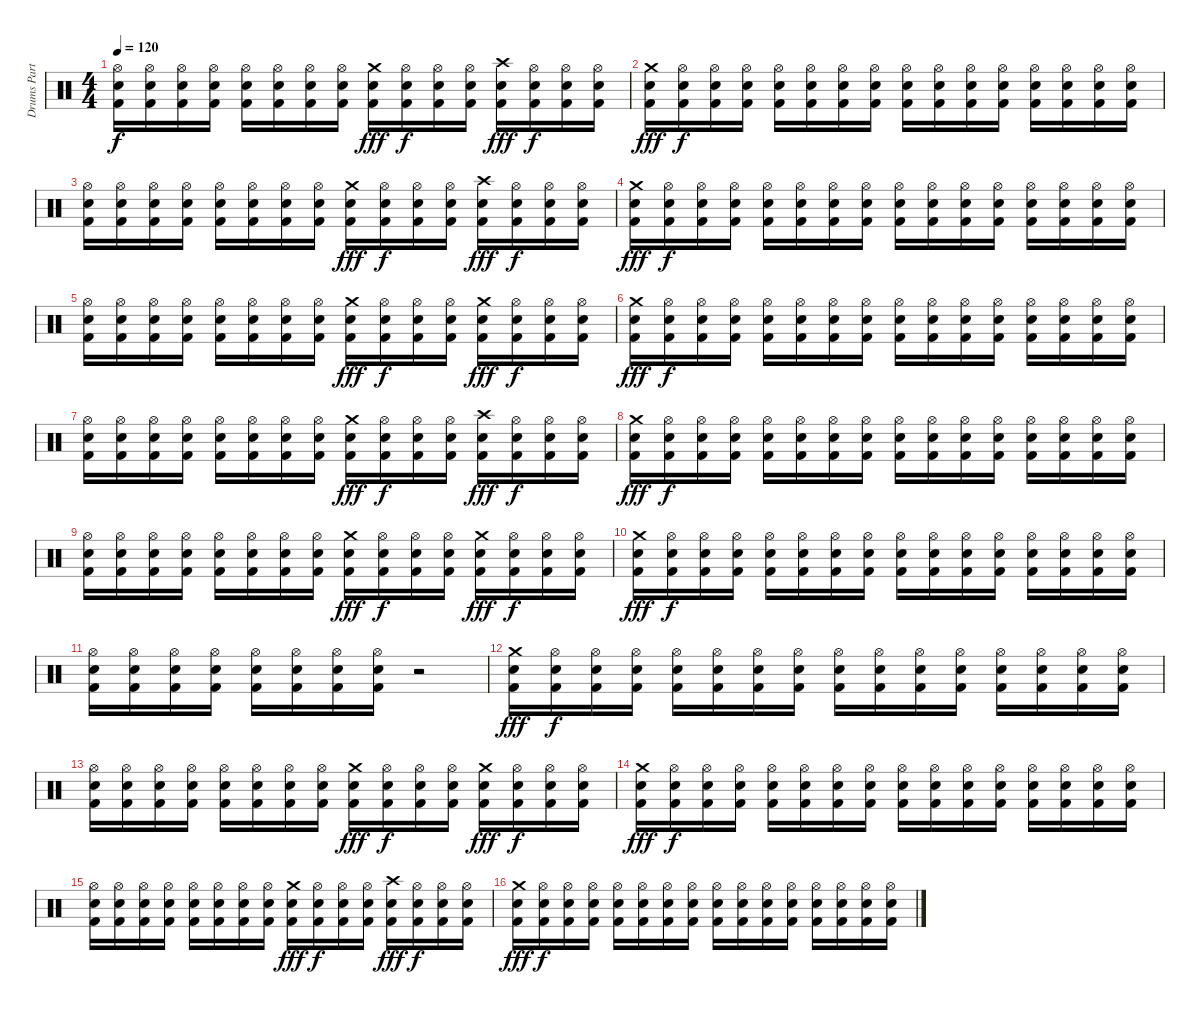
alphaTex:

\track ("Drums Part" "Drums Part") {instrument percussion}
\staff {score}
\articulation defaults
\ts (4 4)
\tempo 120
\clef neutral
\ks c
("Hi-Hat (open)" "Electric Snare (hit)" "Kick (hit) 2").16{dy f} ("Hi-Hat (open)" "Electric Snare (hit)" "Kick (hit) 2").16 ("Hi-Hat (open)" "Electric Snare (hit)" "Kick (hit) 2").16 ("Hi-Hat (open)" "Electric Snare (hit)" "Kick (hit) 2").16 ("Hi-Hat (open)" "Electric Snare (hit)" "Kick (hit) 2").16 ("Hi-Hat (open)" "Electric Snare (hit)" "Kick (hit) 2").16 ("Hi-Hat (open)" "Electric Snare (hit)" "Kick (hit) 2").16 ("Hi-Hat (open)" "Electric Snare (hit)" "Kick (hit) 2").16 ("Crash medium (hit)" "Electric Snare (hit)" "Kick (hit) 2").16{dy fff} ("Hi-Hat (open)" "Electric Snare (hit)" "Kick (hit) 2").16{dy f} ("Hi-Hat (open)" "Electric Snare (hit)" "Kick (hit) 2").16 ("Hi-Hat (open)" "Electric Snare (hit)" "Kick (hit) 2").16 ("Crash high (hit)" "Electric Snare (hit)" "Kick (hit) 2").16{dy fff} ("Hi-Hat (open)" "Electric Snare (hit)" "Kick (hit) 2").16{dy f} ("Hi-Hat (open)" "Electric Snare (hit)" "Kick (hit) 2").16 ("Hi-Hat (open)" "Electric Snare (hit)" "Kick (hit) 2").16 |
("Crash medium (hit)" "Electric Snare (hit)" "Kick (hit) 2").16{dy fff} ("Hi-Hat (open)" "Electric Snare (hit)" "Kick (hit) 2").16{dy f} ("Hi-Hat (open)" "Electric Snare (hit)" "Kick (hit) 2").16 ("Hi-Hat (open)" "Electric Snare (hit)" "Kick (hit) 2").16 ("Hi-Hat (open)" "Electric Snare (hit)" "Kick (hit) 2").16 ("Hi-Hat (open)" "Electric Snare (hit)" "Kick (hit) 2").16 ("Hi-Hat (open)" "Electric Snare (hit)" "Kick (hit) 2").16 ("Hi-Hat (open)" "Electric Snare (hit)" "Kick (hit) 2").16 ("Hi-Hat (open)" "Electric Snare (hit)" "Kick (hit) 2").16 ("Hi-Hat (open)" "Electric Snare (hit)" "Kick (hit) 2").16 ("Hi-Hat (open)" "Electric Snare (hit)" "Kick (hit) 2").16 ("Hi-Hat (open)" "Electric Snare (hit)" "Kick (hit) 2").16 ("Hi-Hat (open)" "Electric Snare (hit)" "Kick (hit) 2").16 ("Hi-Hat (open)" "Electric Snare (hit)" "Kick (hit) 2").16 ("Hi-Hat (open)" "Electric Snare (hit)" "Kick (hit) 2").16 ("Hi-Hat (open)" "Electric Snare (hit)" "Kick (hit) 2").16 |
("Hi-Hat (open)" "Electric Snare (hit)" "Kick (hit) 2").16 ("Hi-Hat (open)" "Electric Snare (hit)" "Kick (hit) 2").16 ("Hi-Hat (open)" "Electric Snare (hit)" "Kick (hit) 2").16 ("Hi-Hat (open)" "Electric Snare (hit)" "Kick (hit) 2").16 ("Hi-Hat (open)" "Electric Snare (hit)" "Kick (hit) 2").16 ("Hi-Hat (open)" "Electric Snare (hit)" "Kick (hit) 2").16 ("Hi-Hat (open)" "Electric Snare (hit)" "Kick (hit) 2").16 ("Hi-Hat (open)" "Electric Snare (hit)" "Kick (hit) 2").16 ("Crash medium (hit)" "Electric Snare (hit)" "Kick (hit) 2").16{dy fff} ("Hi-Hat (open)" "Electric Snare (hit)" "Kick (hit) 2").16{dy f} ("Hi-Hat (open)" "Electric Snare (hit)" "Kick (hit) 2").16 ("Hi-Hat (open)" "Electric Snare (hit)" "Kick (hit) 2").16 ("Crash high (hit)" "Electric Snare (hit)" "Kick (hit) 2").16{dy fff} ("Hi-Hat (open)" "Electric Snare (hit)" "Kick (hit) 2").16{dy f} ("Hi-Hat (open)" "Electric Snare (hit)" "Kick (hit) 2").16 ("Hi-Hat (open)" "Electric Snare (hit)" "Kick (hit) 2").16 |
("Crash medium (hit)" "Electric Snare (hit)" "Kick (hit) 2").16{dy fff} ("Hi-Hat (open)" "Electric Snare (hit)" "Kick (hit) 2").16{dy f} ("Hi-Hat (open)" "Electric Snare (hit)" "Kick (hit) 2").16 ("Hi-Hat (open)" "Electric Snare (hit)" "Kick (hit) 2").16 ("Hi-Hat (open)" "Electric Snare (hit)" "Kick (hit) 2").16 ("Hi-Hat (open)" "Electric Snare (hit)" "Kick (hit) 2").16 ("Hi-Hat (open)" "Electric Snare (hit)" "Kick (hit) 2").16 ("Hi-Hat (open)" "Electric Snare (hit)" "Kick (hit) 2").16 ("Hi-Hat (open)" "Electric Snare (hit)" "Kick (hit) 2").16 ("Hi-Hat (open)" "Electric Snare (hit)" "Kick (hit) 2").16 ("Hi-Hat (open)" "Electric Snare (hit)" "Kick (hit) 2").16 ("Hi-Hat (open)" "Electric Snare (hit)" "Kick (hit) 2").16 ("Hi-Hat (open)" "Electric Snare (hit)" "Kick (hit) 2").16 ("Hi-Hat (open)" "Electric Snare (hit)" "Kick (hit) 2").16 ("Hi-Hat (open)" "Electric Snare (hit)" "Kick (hit) 2").16 ("Hi-Hat (open)" "Electric Snare (hit)" "Kick (hit) 2").16 |
("Hi-Hat (open)" "Electric Snare (hit)" "Kick (hit) 2").16 ("Hi-Hat (open)" "Electric Snare (hit)" "Kick (hit) 2").16 ("Hi-Hat (open)" "Electric Snare (hit)" "Kick (hit) 2").16 ("Hi-Hat (open)" "Electric Snare (hit)" "Kick (hit) 2").16 ("Hi-Hat (open)" "Electric Snare (hit)" "Kick (hit) 2").16 ("Hi-Hat (open)" "Electric Snare (hit)" "Kick (hit) 2").16 ("Hi-Hat (open)" "Electric Snare (hit)" "Kick (hit) 2").16 ("Hi-Hat (open)" "Electric Snare (hit)" "Kick (hit) 2").16 ("Crash medium (hit)" "Electric Snare (hit)" "Kick (hit) 2").16{dy fff} ("Hi-Hat (open)" "Electric Snare (hit)" "Kick (hit) 2").16{dy f} ("Hi-Hat (open)" "Electric Snare (hit)" "Kick (hit) 2").16 ("Hi-Hat (open)" "Electric Snare (hit)" "Kick (hit) 2").16 ("Crash medium (hit)" "Electric Snare (hit)" "Kick (hit) 2").16{dy fff} ("Hi-Hat (open)" "Electric Snare (hit)" "Kick (hit) 2").16{dy f} ("Hi-Hat (open)" "Electric Snare (hit)" "Kick (hit) 2").16 ("Hi-Hat (open)" "Electric Snare (hit)" "Kick (hit) 2").16 |
("Crash medium (hit)" "Electric Snare (hit)" "Kick (hit) 2").16{dy fff} ("Hi-Hat (open)" "Electric Snare (hit)" "Kick (hit) 2").16{dy f} ("Hi-Hat (open)" "Electric Snare (hit)" "Kick (hit) 2").16 ("Hi-Hat (open)" "Electric Snare (hit)" "Kick (hit) 2").16 ("Hi-Hat (open)" "Electric Snare (hit)" "Kick (hit) 2").16 ("Hi-Hat (open)" "Electric Snare (hit)" "Kick (hit) 2").16 ("Hi-Hat (open)" "Electric Snare (hit)" "Kick (hit) 2").16 ("Hi-Hat (open)" "Electric Snare (hit)" "Kick (hit) 2").16 ("Hi-Hat (open)" "Electric Snare (hit)" "Kick (hit) 2").16 ("Hi-Hat (open)" "Electric Snare (hit)" "Kick (hit) 2").16 ("Hi-Hat (open)" "Electric Snare (hit)" "Kick (hit) 2").16 ("Hi-Hat (open)" "Electric Snare (hit)" "Kick (hit) 2").16 ("Hi-Hat (open)" "Electric Snare (hit)" "Kick (hit) 2").16 ("Hi-Hat (open)" "Electric Snare (hit)" "Kick (hit) 2").16 ("Hi-Hat (open)" "Electric Snare (hit)" "Kick (hit) 2").16 ("Hi-Hat (open)" "Electric Snare (hit)" "Kick (hit) 2").16 |
("Hi-Hat (open)" "Electric Snare (hit)" "Kick (hit) 2").16 ("Hi-Hat (open)" "Electric Snare (hit)" "Kick (hit) 2").16 ("Hi-Hat (open)" "Electric Snare (hit)" "Kick (hit) 2").16 ("Hi-Hat (open)" "Electric Snare (hit)" "Kick (hit) 2").16 ("Hi-Hat (open)" "Electric Snare (hit)" "Kick (hit) 2").16 ("Hi-Hat (open)" "Electric Snare (hit)" "Kick (hit) 2").16 ("Hi-Hat (open)" "Electric Snare (hit)" "Kick (hit) 2").16 ("Hi-Hat (open)" "Electric Snare (hit)" "Kick (hit) 2").16 ("Crash medium (hit)" "Electric Snare (hit)" "Kick (hit) 2").16{dy fff} ("Hi-Hat (open)" "Electric Snare (hit)" "Kick (hit) 2").16{dy f} ("Hi-Hat (open)" "Electric Snare (hit)" "Kick (hit) 2").16 ("Hi-Hat (open)" "Electric Snare (hit)" "Kick (hit) 2").16 ("Crash high (hit)" "Electric Snare (hit)" "Kick (hit) 2").16{dy fff} ("Hi-Hat (open)" "Electric Snare (hit)" "Kick (hit) 2").16{dy f} ("Hi-Hat (open)" "Electric Snare (hit)" "Kick (hit) 2").16 ("Hi-Hat (open)" "Electric Snare (hit)" "Kick (hit) 2").16 |
("Crash medium (hit)" "Electric Snare (hit)" "Kick (hit) 2").16{dy fff} ("Hi-Hat (open)" "Electric Snare (hit)" "Kick (hit) 2").16{dy f} ("Hi-Hat (open)" "Electric Snare (hit)" "Kick (hit) 2").16 ("Hi-Hat (open)" "Electric Snare (hit)" "Kick (hit) 2").16 ("Hi-Hat (open)" "Electric Snare (hit)" "Kick (hit) 2").16 ("Hi-Hat (open)" "Electric Snare (hit)" "Kick (hit) 2").16 ("Hi-Hat (open)" "Electric Snare (hit)" "Kick (hit) 2").16 ("Hi-Hat (open)" "Electric Snare (hit)" "Kick (hit) 2").16 ("Hi-Hat (open)" "Electric Snare (hit)" "Kick (hit) 2").16 ("Hi-Hat (open)" "Electric Snare (hit)" "Kick (hit) 2").16 ("Hi-Hat (open)" "Electric Snare (hit)" "Kick (hit) 2").16 ("Hi-Hat (open)" "Electric Snare (hit)" "Kick (hit) 2").16 ("Hi-Hat (open)" "Electric Snare (hit)" "Kick (hit) 2").16 ("Hi-Hat (open)" "Electric Snare (hit)" "Kick (hit) 2").16 ("Hi-Hat (open)" "Electric Snare (hit)" "Kick (hit) 2").16 ("Hi-Hat (open)" "Electric Snare (hit)" "Kick (hit) 2").16 |
("Hi-Hat (open)" "Electric Snare (hit)" "Kick (hit) 2").16 ("Hi-Hat (open)" "Electric Snare (hit)" "Kick (hit) 2").16 ("Hi-Hat (open)" "Electric Snare (hit)" "Kick (hit) 2").16 ("Hi-Hat (open)" "Electric Snare (hit)" "Kick (hit) 2").16 ("Hi-Hat (open)" "Electric Snare (hit)" "Kick (hit) 2").16 ("Hi-Hat (open)" "Electric Snare (hit)" "Kick (hit) 2").16 ("Hi-Hat (open)" "Electric Snare (hit)" "Kick (hit) 2").16 ("Hi-Hat (open)" "Electric Snare (hit)" "Kick (hit) 2").16 ("Crash medium (hit)" "Electric Snare (hit)" "Kick (hit) 2").16{dy fff} ("Hi-Hat (open)" "Electric Snare (hit)" "Kick (hit) 2").16{dy f} ("Hi-Hat (open)" "Electric Snare (hit)" "Kick (hit) 2").16 ("Hi-Hat (open)" "Electric Snare (hit)" "Kick (hit) 2").16 ("Crash medium (hit)" "Electric Snare (hit)" "Kick (hit) 2").16{dy fff} ("Hi-Hat (open)" "Electric Snare (hit)" "Kick (hit) 2").16{dy f} ("Hi-Hat (open)" "Electric Snare (hit)" "Kick (hit) 2").16 ("Hi-Hat (open)" "Electric Snare (hit)" "Kick (hit) 2").16 |
("Crash medium (hit)" "Electric Snare (hit)" "Kick (hit) 2").16{dy fff} ("Hi-Hat (open)" "Electric Snare (hit)" "Kick (hit) 2").16{dy f} ("Hi-Hat (open)" "Electric Snare (hit)" "Kick (hit) 2").16 ("Hi-Hat (open)" "Electric Snare (hit)" "Kick (hit) 2").16 ("Hi-Hat (open)" "Electric Snare (hit)" "Kick (hit) 2").16 ("Hi-Hat (open)" "Electric Snare (hit)" "Kick (hit) 2").16 ("Hi-Hat (open)" "Electric Snare (hit)" "Kick (hit) 2").16 ("Hi-Hat (open)" "Electric Snare (hit)" "Kick (hit) 2").16 ("Hi-Hat (open)" "Electric Snare (hit)" "Kick (hit) 2").16 ("Hi-Hat (open)" "Electric Snare (hit)" "Kick (hit) 2").16 ("Hi-Hat (open)" "Electric Snare (hit)" "Kick (hit) 2").16 ("Hi-Hat (open)" "Electric Snare (hit)" "Kick (hit) 2").16 ("Hi-Hat (open)" "Electric Snare (hit)" "Kick (hit) 2").16 ("Hi-Hat (open)" "Electric Snare (hit)" "Kick (hit) 2").16 ("Hi-Hat (open)" "Electric Snare (hit)" "Kick (hit) 2").16 ("Hi-Hat (open)" "Electric Snare (hit)" "Kick (hit) 2").16 |
("Hi-Hat (open)" "Electric Snare (hit)" "Kick (hit) 2").16 ("Hi-Hat (open)" "Electric Snare (hit)" "Kick (hit) 2").16 ("Hi-Hat (open)" "Electric Snare (hit)" "Kick (hit) 2").16 ("Hi-Hat (open)" "Electric Snare (hit)" "Kick (hit) 2").16 ("Hi-Hat (open)" "Electric Snare (hit)" "Kick (hit) 2").16 ("Hi-Hat (open)" "Electric Snare (hit)" "Kick (hit) 2").16 ("Hi-Hat (open)" "Electric Snare (hit)" "Kick (hit) 2").16 ("Hi-Hat (open)" "Electric Snare (hit)" "Kick (hit) 2").16 r.2 |
("Crash medium (hit)" "Electric Snare (hit)" "Kick (hit) 2").16{dy fff} ("Hi-Hat (open)" "Electric Snare (hit)" "Kick (hit) 2").16{dy f} ("Hi-Hat (open)" "Electric Snare (hit)" "Kick (hit) 2").16 ("Hi-Hat (open)" "Electric Snare (hit)" "Kick (hit) 2").16 ("Hi-Hat (open)" "Electric Snare (hit)" "Kick (hit) 2").16 ("Hi-Hat (open)" "Electric Snare (hit)" "Kick (hit) 2").16 ("Hi-Hat (open)" "Electric Snare (hit)" "Kick (hit) 2").16 ("Hi-Hat (open)" "Electric Snare (hit)" "Kick (hit) 2").16 ("Hi-Hat (open)" "Electric Snare (hit)" "Kick (hit) 2").16 ("Hi-Hat (open)" "Electric Snare (hit)" "Kick (hit) 2").16 ("Hi-Hat (open)" "Electric Snare (hit)" "Kick (hit) 2").16 ("Hi-Hat (open)" "Electric Snare (hit)" "Kick (hit) 2").16 ("Hi-Hat (open)" "Electric Snare (hit)" "Kick (hit) 2").16 ("Hi-Hat (open)" "Electric Snare (hit)" "Kick (hit) 2").16 ("Hi-Hat (open)" "Electric Snare (hit)" "Kick (hit) 2").16 ("Hi-Hat (open)" "Electric Snare (hit)" "Kick (hit) 2").16 |
("Hi-Hat (open)" "Electric Snare (hit)" "Kick (hit) 2").16 ("Hi-Hat (open)" "Electric Snare (hit)" "Kick (hit) 2").16 ("Hi-Hat (open)" "Electric Snare (hit)" "Kick (hit) 2").16 ("Hi-Hat (open)" "Electric Snare (hit)" "Kick (hit) 2").16 ("Hi-Hat (open)" "Electric Snare (hit)" "Kick (hit) 2").16 ("Hi-Hat (open)" "Electric Snare (hit)" "Kick (hit) 2").16 ("Hi-Hat (open)" "Electric Snare (hit)" "Kick (hit) 2").16 ("Hi-Hat (open)" "Electric Snare (hit)" "Kick (hit) 2").16 ("Crash medium (hit)" "Electric Snare (hit)" "Kick (hit) 2").16{dy fff} ("Hi-Hat (open)" "Electric Snare (hit)" "Kick (hit) 2").16{dy f} ("Hi-Hat (open)" "Electric Snare (hit)" "Kick (hit) 2").16 ("Hi-Hat (open)" "Electric Snare (hit)" "Kick (hit) 2").16 ("Crash medium (hit)" "Electric Snare (hit)" "Kick (hit) 2").16{dy fff} ("Hi-Hat (open)" "Electric Snare (hit)" "Kick (hit) 2").16{dy f} ("Hi-Hat (open)" "Electric Snare (hit)" "Kick (hit) 2").16 ("Hi-Hat (open)" "Electric Snare (hit)" "Kick (hit) 2").16 |
("Crash medium (hit)" "Electric Snare (hit)" "Kick (hit) 2").16{dy fff} ("Hi-Hat (open)" "Electric Snare (hit)" "Kick (hit) 2").16{dy f} ("Hi-Hat (open)" "Electric Snare (hit)" "Kick (hit) 2").16 ("Hi-Hat (open)" "Electric Snare (hit)" "Kick (hit) 2").16 ("Hi-Hat (open)" "Electric Snare (hit)" "Kick (hit) 2").16 ("Hi-Hat (open)" "Electric Snare (hit)" "Kick (hit) 2").16 ("Hi-Hat (open)" "Electric Snare (hit)" "Kick (hit) 2").16 ("Hi-Hat (open)" "Electric Snare (hit)" "Kick (hit) 2").16 ("Hi-Hat (open)" "Electric Snare (hit)" "Kick (hit) 2").16 ("Hi-Hat (open)" "Electric Snare (hit)" "Kick (hit) 2").16 ("Hi-Hat (open)" "Electric Snare (hit)" "Kick (hit) 2").16 ("Hi-Hat (open)" "Electric Snare (hit)" "Kick (hit) 2").16 ("Hi-Hat (open)" "Electric Snare (hit)" "Kick (hit) 2").16 ("Hi-Hat (open)" "Electric Snare (hit)" "Kick (hit) 2").16 ("Hi-Hat (open)" "Electric Snare (hit)" "Kick (hit) 2").16 ("Hi-Hat (open)" "Electric Snare (hit)" "Kick (hit) 2").16 |
("Hi-Hat (open)" "Electric Snare (hit)" "Kick (hit) 2").16 ("Hi-Hat (open)" "Electric Snare (hit)" "Kick (hit) 2").16 ("Hi-Hat (open)" "Electric Snare (hit)" "Kick (hit) 2").16 ("Hi-Hat (open)" "Electric Snare (hit)" "Kick (hit) 2").16 ("Hi-Hat (open)" "Electric Snare (hit)" "Kick (hit) 2").16 ("Hi-Hat (open)" "Electric Snare (hit)" "Kick (hit) 2").16 ("Hi-Hat (open)" "Electric Snare (hit)" "Kick (hit) 2").16 ("Hi-Hat (open)" "Electric Snare (hit)" "Kick (hit) 2").16 ("Crash medium (hit)" "Electric Snare (hit)" "Kick (hit) 2").16{dy fff} ("Hi-Hat (open)" "Electric Snare (hit)" "Kick (hit) 2").16{dy f} ("Hi-Hat (open)" "Electric Snare (hit)" "Kick (hit) 2").16 ("Hi-Hat (open)" "Electric Snare (hit)" "Kick (hit) 2").16 ("Crash high (hit)" "Electric Snare (hit)" "Kick (hit) 2").16{dy fff} ("Hi-Hat (open)" "Electric Snare (hit)" "Kick (hit) 2").16{dy f} ("Hi-Hat (open)" "Electric Snare (hit)" "Kick (hit) 2").16 ("Hi-Hat (open)" "Electric Snare (hit)" "Kick (hit) 2").16 |
("Crash medium (hit)" "Electric Snare (hit)" "Kick (hit) 2").16{dy fff} ("Hi-Hat (open)" "Electric Snare (hit)" "Kick (hit) 2").16{dy f} ("Hi-Hat (open)" "Electric Snare (hit)" "Kick (hit) 2").16 ("Hi-Hat (open)" "Electric Snare (hit)" "Kick (hit) 2").16 ("Hi-Hat (open)" "Electric Snare (hit)" "Kick (hit) 2").16 ("Hi-Hat (open)" "Electric Snare (hit)" "Kick (hit) 2").16 ("Hi-Hat (open)" "Electric Snare (hit)" "Kick (hit) 2").16 ("Hi-Hat (open)" "Electric Snare (hit)" "Kick (hit) 2").16 ("Hi-Hat (open)" "Electric Snare (hit)" "Kick (hit) 2").16 ("Hi-Hat (open)" "Electric Snare (hit)" "Kick (hit) 2").16 ("Hi-Hat (open)" "Electric Snare (hit)" "Kick (hit) 2").16 ("Hi-Hat (open)" "Electric Snare (hit)" "Kick (hit) 2").16 ("Hi-Hat (open)" "Electric Snare (hit)" "Kick (hit) 2").16 ("Hi-Hat (open)" "Electric Snare (hit)" "Kick (hit) 2").16 ("Hi-Hat (open)" "Electric Snare (hit)" "Kick (hit) 2").16 ("Hi-Hat (open)" "Electric Snare (hit)" "Kick (hit) 2").16
